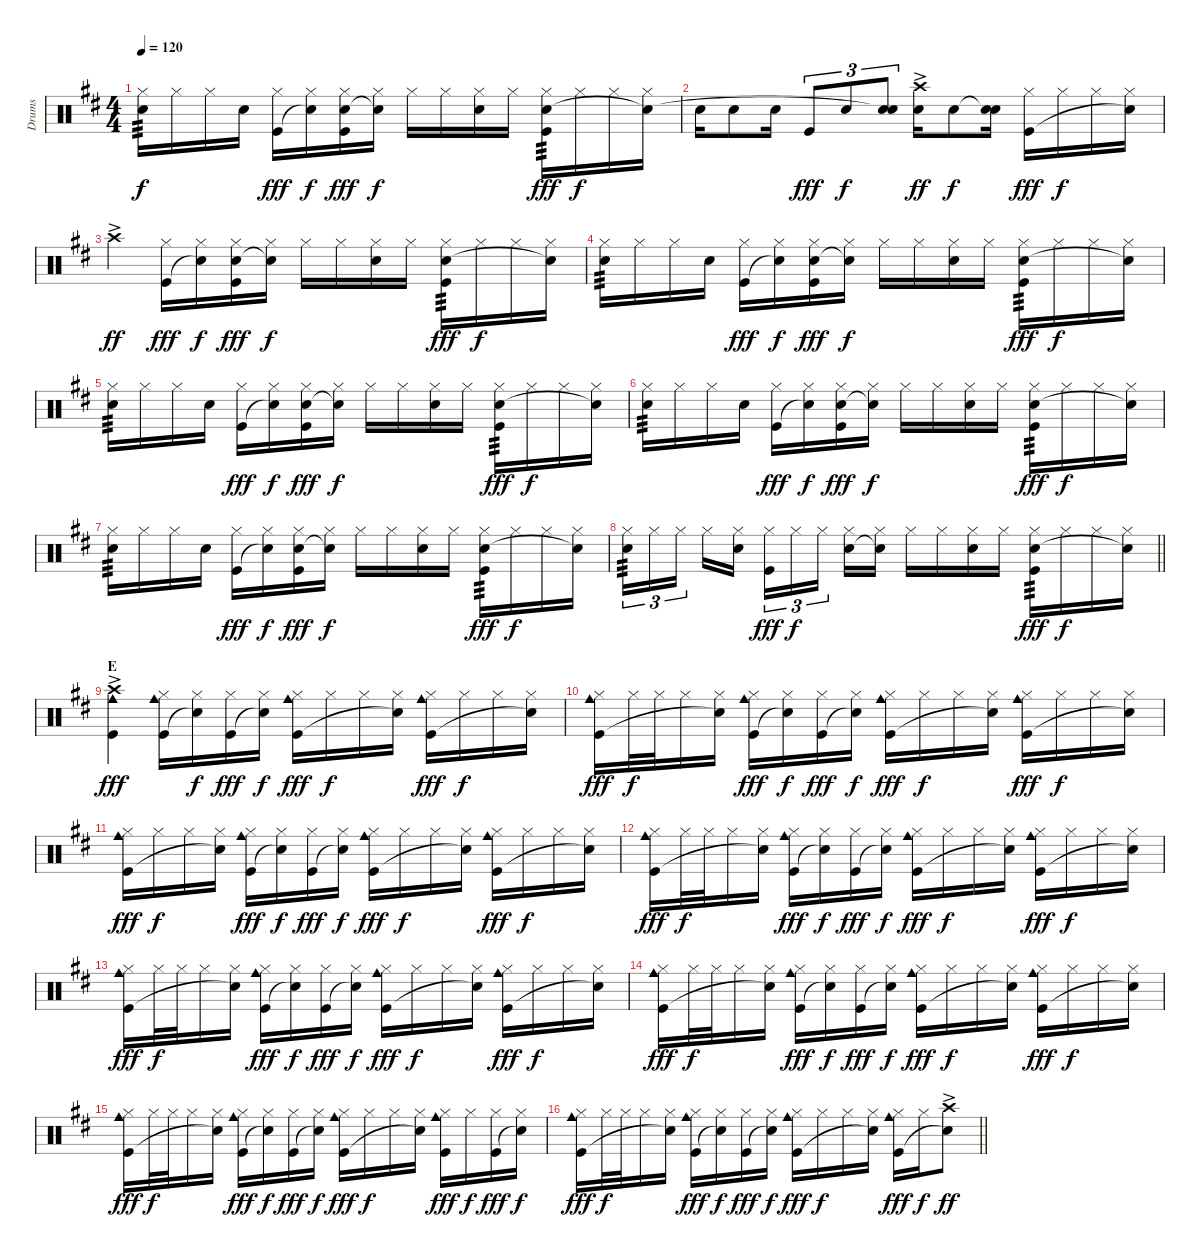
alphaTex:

\track ("Drums" "Drums") {instrument percussion}
\staff {score}
\articulation defaults
\ts (4 4)
\tempo 120
\clef neutral
\ks d
("Hi-Hat (closed)" "Snare (hit) 2").16{tp 3 dy f} "Hi-Hat (closed)".16 "Hi-Hat (closed)".16 "Snare (hit) 2".16 ("Hi-Hat (closed)" "Kick (hit)").16{dy fff} ("Hi-Hat (closed)" "Snare (hit)"{t}).16{dy f} ("Hi-Hat (closed)" "Snare (hit) 2" "Kick (hit)").16{dy fff} ("Hi-Hat (closed)" "Snare (hit)"{t}).16{dy f} "Hi-Hat (closed)".16 "Hi-Hat (closed)".16 ("Hi-Hat (closed)" "Snare (hit) 2").16 "Hi-Hat (closed)".16 ("Hi-Hat (closed)" "Snare (hit) 2" "Kick (hit)").16{tp 3 dy fff} "Hi-Hat (closed)".16{dy f} "Hi-Hat (closed)".16 ("Hi-Hat (closed)" "Snare (hit)"{t}).16 |
"Snare (hit) 2".16 "Snare (hit) 2".8 "Snare (hit) 2".16 "Kick (hit)".8{tu (3 2) dy fff} "Snare (hit) 2".8{tu (3 2) dy f} ("Snare (hit) 2" "Snare (hit)"{t}).8{tu (3 2)} ("Crash high (hit)"{ac} "Snare (hit) 2").16{dy ff} "Snare (hit) 2".8{dy f} ("Snare (hit)"{t} "Snare (hit) 2").16 ("Hi-Hat (closed)" "Kick (hit)").16{dy fff} "Hi-Hat (closed)".16{dy f} "Hi-Hat (closed)".16 ("Hi-Hat (closed)" "Snare (hit)"{t}).16 |
"Crash high (hit)"{ac}.4{dy ff} ("Hi-Hat (closed)" "Kick (hit)").16{dy fff} ("Hi-Hat (closed)" "Snare (hit)"{t}).16{dy f} ("Hi-Hat (closed)" "Snare (hit) 2" "Kick (hit)").16{dy fff} ("Hi-Hat (closed)" "Snare (hit)"{t}).16{dy f} "Hi-Hat (closed)".16 "Hi-Hat (closed)".16 ("Hi-Hat (closed)" "Snare (hit) 2").16 "Hi-Hat (closed)".16 ("Hi-Hat (closed)" "Snare (hit) 2" "Kick (hit)").16{tp 3 dy fff} "Hi-Hat (closed)".16{dy f} "Hi-Hat (closed)".16 ("Hi-Hat (closed)" "Snare (hit)"{t}).16 |
("Hi-Hat (closed)" "Snare (hit) 2").16{tp 3} "Hi-Hat (closed)".16 "Hi-Hat (closed)".16 "Snare (hit) 2".16 ("Hi-Hat (closed)" "Kick (hit)").16{dy fff} ("Hi-Hat (closed)" "Snare (hit)"{t}).16{dy f} ("Hi-Hat (closed)" "Snare (hit) 2" "Kick (hit)").16{dy fff} ("Hi-Hat (closed)" "Snare (hit)"{t}).16{dy f} "Hi-Hat (closed)".16 "Hi-Hat (closed)".16 ("Hi-Hat (closed)" "Snare (hit) 2").16 "Hi-Hat (closed)".16 ("Hi-Hat (closed)" "Snare (hit) 2" "Kick (hit)").16{tp 3 dy fff} "Hi-Hat (closed)".16{dy f} "Hi-Hat (closed)".16 ("Hi-Hat (closed)" "Snare (hit)"{t}).16 |
("Hi-Hat (closed)" "Snare (hit) 2").16{tp 3} "Hi-Hat (closed)".16 "Hi-Hat (closed)".16 "Snare (hit) 2".16 ("Hi-Hat (closed)" "Kick (hit)").16{dy fff} ("Hi-Hat (closed)" "Snare (hit)"{t}).16{dy f} ("Hi-Hat (closed)" "Snare (hit) 2" "Kick (hit)").16{dy fff} ("Hi-Hat (closed)" "Snare (hit)"{t}).16{dy f} "Hi-Hat (closed)".16 "Hi-Hat (closed)".16 ("Hi-Hat (closed)" "Snare (hit) 2").16 "Hi-Hat (closed)".16 ("Hi-Hat (closed)" "Snare (hit) 2" "Kick (hit)").16{tp 3 dy fff} "Hi-Hat (closed)".16{dy f} "Hi-Hat (closed)".16 ("Hi-Hat (closed)" "Snare (hit)"{t}).16 |
("Hi-Hat (closed)" "Snare (hit) 2").16{tp 3} "Hi-Hat (closed)".16 "Hi-Hat (closed)".16 "Snare (hit) 2".16 ("Hi-Hat (closed)" "Kick (hit)").16{dy fff} ("Hi-Hat (closed)" "Snare (hit)"{t}).16{dy f} ("Hi-Hat (closed)" "Snare (hit) 2" "Kick (hit)").16{dy fff} ("Hi-Hat (closed)" "Snare (hit)"{t}).16{dy f} "Hi-Hat (closed)".16 "Hi-Hat (closed)".16 ("Hi-Hat (closed)" "Snare (hit) 2").16 "Hi-Hat (closed)".16 ("Hi-Hat (closed)" "Snare (hit) 2" "Kick (hit)").16{tp 3 dy fff} "Hi-Hat (closed)".16{dy f} "Hi-Hat (closed)".16 ("Hi-Hat (closed)" "Snare (hit)"{t}).16 |
("Hi-Hat (closed)" "Snare (hit) 2").16{tp 3} "Hi-Hat (closed)".16 "Hi-Hat (closed)".16 "Snare (hit) 2".16 ("Hi-Hat (closed)" "Kick (hit)").16{dy fff} ("Hi-Hat (closed)" "Snare (hit)"{t}).16{dy f} ("Hi-Hat (closed)" "Snare (hit) 2" "Kick (hit)").16{dy fff} ("Hi-Hat (closed)" "Snare (hit)"{t}).16{dy f} "Hi-Hat (closed)".16 "Hi-Hat (closed)".16 ("Hi-Hat (closed)" "Snare (hit) 2").16 "Hi-Hat (closed)".16 ("Hi-Hat (closed)" "Snare (hit) 2" "Kick (hit)").16{tp 3 dy fff} "Hi-Hat (closed)".16{dy f} "Hi-Hat (closed)".16 ("Hi-Hat (closed)" "Snare (hit)"{t}).16 |
\barLineRight lightlight
("Hi-Hat (closed)" "Snare (hit) 2").16{tu (3 2) tp 3} "Hi-Hat (closed)".16{tu (3 2)} "Hi-Hat (closed)".16{tu (3 2) beam splitsecondary} "Hi-Hat (closed)".16 ("Hi-Hat (closed)" "Snare (hit) 2").16 ("Hi-Hat (closed)" "Kick (hit)").16{tu (3 2) dy fff} "Hi-Hat (closed)".16{tu (3 2) dy f} "Hi-Hat (closed)".16{tu (3 2) beam splitsecondary} ("Hi-Hat (closed)" "Snare (hit) 2").16 ("Hi-Hat (closed)" "Snare (hit)"{t}).16 "Hi-Hat (closed)".16 "Hi-Hat (closed)".16 ("Hi-Hat (closed)" "Snare (hit) 2").16 "Hi-Hat (closed)".16 ("Hi-Hat (closed)" "Snare (hit) 2" "Kick (hit)").16{tp 3 dy fff} "Hi-Hat (closed)".16{dy f} "Hi-Hat (closed)".16 ("Hi-Hat (closed)" "Snare (hit)"{t}).16 |
\section ("" "E")
("Crash high (hit)"{ac} "Kick (hit)" "Cowbell medium (hit)").4{dy fff} ("Hi-Hat (closed)" "Kick (hit)" "Cowbell medium (hit)").16 ("Hi-Hat (closed)" "Snare (hit)"{t}).16{dy f} ("Hi-Hat (closed)" "Kick (hit)").16{dy fff} ("Hi-Hat (closed)" "Snare (hit)"{t}).16{dy f} ("Hi-Hat (closed)" "Kick (hit)" "Cowbell medium (hit)").16{dy fff} "Hi-Hat (closed)".16{dy f} "Hi-Hat (closed)".16 ("Hi-Hat (closed)" "Snare (hit)"{t}).16 ("Hi-Hat (closed)" "Kick (hit)" "Cowbell medium (hit)").16{dy fff} "Hi-Hat (closed)".16{dy f} "Hi-Hat (closed)".16 ("Hi-Hat (closed)" "Snare (hit)"{t}).16 |
("Hi-Hat (closed)" "Kick (hit)" "Cowbell medium (hit)").16{dy fff} "Hi-Hat (closed)".32{dy f} "Hi-Hat (closed)".32 "Hi-Hat (closed)".16 ("Hi-Hat (closed)" "Snare (hit)"{t}).16 ("Hi-Hat (closed)" "Kick (hit)" "Cowbell medium (hit)").16{dy fff} ("Hi-Hat (closed)" "Snare (hit)"{t}).16{dy f} ("Hi-Hat (closed)" "Kick (hit)").16{dy fff} ("Hi-Hat (closed)" "Snare (hit)"{t}).16{dy f} ("Hi-Hat (closed)" "Kick (hit)" "Cowbell medium (hit)").16{dy fff} "Hi-Hat (closed)".16{dy f} "Hi-Hat (closed)".16 ("Hi-Hat (closed)" "Snare (hit)"{t}).16 ("Hi-Hat (closed)" "Kick (hit)" "Cowbell medium (hit)").16{dy fff} "Hi-Hat (closed)".16{dy f} "Hi-Hat (closed)".16 ("Hi-Hat (closed)" "Snare (hit)"{t}).16 |
("Hi-Hat (closed)" "Kick (hit)" "Cowbell medium (hit)").16{dy fff} "Hi-Hat (closed)".16{dy f} "Hi-Hat (closed)".16 ("Hi-Hat (closed)" "Snare (hit)"{t}).16 ("Hi-Hat (closed)" "Kick (hit)" "Cowbell medium (hit)").16{dy fff} ("Hi-Hat (closed)" "Snare (hit)"{t}).16{dy f} ("Hi-Hat (closed)" "Kick (hit)").16{dy fff} ("Hi-Hat (closed)" "Snare (hit)"{t}).16{dy f} ("Hi-Hat (closed)" "Kick (hit)" "Cowbell medium (hit)").16{dy fff} "Hi-Hat (closed)".16{dy f} "Hi-Hat (closed)".16 ("Hi-Hat (closed)" "Snare (hit)"{t}).16 ("Hi-Hat (closed)" "Kick (hit)" "Cowbell medium (hit)").16{dy fff} "Hi-Hat (closed)".16{dy f} "Hi-Hat (closed)".16 ("Hi-Hat (closed)" "Snare (hit)"{t}).16 |
("Hi-Hat (closed)" "Kick (hit)" "Cowbell medium (hit)").16{dy fff} "Hi-Hat (closed)".32{dy f} "Hi-Hat (closed)".32 "Hi-Hat (closed)".16 ("Hi-Hat (closed)" "Snare (hit)"{t}).16 ("Hi-Hat (closed)" "Kick (hit)" "Cowbell medium (hit)").16{dy fff} ("Hi-Hat (closed)" "Snare (hit)"{t}).16{dy f} ("Hi-Hat (closed)" "Kick (hit)").16{dy fff} ("Hi-Hat (closed)" "Snare (hit)"{t}).16{dy f} ("Hi-Hat (closed)" "Kick (hit)" "Cowbell medium (hit)").16{dy fff} "Hi-Hat (closed)".16{dy f} "Hi-Hat (closed)".16 ("Hi-Hat (closed)" "Snare (hit)"{t}).16 ("Hi-Hat (closed)" "Kick (hit)" "Cowbell medium (hit)").16{dy fff} "Hi-Hat (closed)".16{dy f} "Hi-Hat (closed)".16 ("Hi-Hat (closed)" "Snare (hit)"{t}).16 |
("Hi-Hat (closed)" "Kick (hit)" "Cowbell medium (hit)").16{dy fff} "Hi-Hat (closed)".32{dy f} "Hi-Hat (closed)".32 "Hi-Hat (closed)".16 ("Hi-Hat (closed)" "Snare (hit)"{t}).16 ("Hi-Hat (closed)" "Kick (hit)" "Cowbell medium (hit)").16{dy fff} ("Hi-Hat (closed)" "Snare (hit)"{t}).16{dy f} ("Hi-Hat (closed)" "Kick (hit)").16{dy fff} ("Hi-Hat (closed)" "Snare (hit)"{t}).16{dy f} ("Hi-Hat (closed)" "Kick (hit)" "Cowbell medium (hit)").16{dy fff} "Hi-Hat (closed)".16{dy f} "Hi-Hat (closed)".16 ("Hi-Hat (closed)" "Snare (hit)"{t}).16 ("Hi-Hat (closed)" "Kick (hit)" "Cowbell medium (hit)").16{dy fff} "Hi-Hat (closed)".16{dy f} "Hi-Hat (closed)".16 ("Hi-Hat (closed)" "Snare (hit)"{t}).16 |
("Hi-Hat (closed)" "Kick (hit)" "Cowbell medium (hit)").16{dy fff} "Hi-Hat (closed)".32{dy f} "Hi-Hat (closed)".32 "Hi-Hat (closed)".16 ("Hi-Hat (closed)" "Snare (hit)"{t}).16 ("Hi-Hat (closed)" "Kick (hit)" "Cowbell medium (hit)").16{dy fff} ("Hi-Hat (closed)" "Snare (hit)"{t}).16{dy f} ("Hi-Hat (closed)" "Kick (hit)").16{dy fff} ("Hi-Hat (closed)" "Snare (hit)"{t}).16{dy f} ("Hi-Hat (closed)" "Kick (hit)" "Cowbell medium (hit)").16{dy fff} "Hi-Hat (closed)".16{dy f} "Hi-Hat (closed)".16 ("Hi-Hat (closed)" "Snare (hit)"{t}).16 ("Hi-Hat (closed)" "Kick (hit)" "Cowbell medium (hit)").16{dy fff} "Hi-Hat (closed)".16{dy f} "Hi-Hat (closed)".16 ("Hi-Hat (closed)" "Snare (hit)"{t}).16 |
("Hi-Hat (closed)" "Kick (hit)" "Cowbell medium (hit)").16{dy fff} "Hi-Hat (closed)".32{dy f} "Hi-Hat (closed)".32 "Hi-Hat (closed)".16 ("Hi-Hat (closed)" "Snare (hit)"{t}).16 ("Hi-Hat (closed)" "Kick (hit)" "Cowbell medium (hit)").16{dy fff} ("Hi-Hat (closed)" "Snare (hit)"{t}).16{dy f} ("Hi-Hat (closed)" "Kick (hit)").16{dy fff} ("Hi-Hat (closed)" "Snare (hit)"{t}).16{dy f} ("Hi-Hat (closed)" "Kick (hit)" "Cowbell medium (hit)").16{dy fff} "Hi-Hat (closed)".16{dy f} "Hi-Hat (closed)".16 ("Hi-Hat (closed)" "Snare (hit)"{t}).16 ("Hi-Hat (closed)" "Kick (hit)" "Cowbell medium (hit)").16{dy fff} "Hi-Hat (closed)".16{dy f} ("Hi-Hat (closed)" "Kick (hit)").16{dy fff} ("Hi-Hat (closed)" "Snare (hit)"{t}).16{dy f} |
\barLineRight lightlight
("Hi-Hat (closed)" "Kick (hit)" "Cowbell medium (hit)").16{dy fff} "Hi-Hat (closed)".32{dy f} "Hi-Hat (closed)".32 "Hi-Hat (closed)".16 ("Hi-Hat (closed)" "Snare (hit)"{t}).16 ("Hi-Hat (closed)" "Kick (hit)" "Cowbell medium (hit)").16{dy fff} ("Hi-Hat (closed)" "Snare (hit)"{t}).16{dy f} ("Hi-Hat (closed)" "Kick (hit)").16{dy fff} ("Hi-Hat (closed)" "Snare (hit)"{t}).16{dy f} ("Hi-Hat (closed)" "Kick (hit)" "Cowbell medium (hit)").16{dy fff} "Hi-Hat (closed)".16{dy f} "Hi-Hat (closed)".16 ("Hi-Hat (closed)" "Snare (hit)"{t}).16 ("Hi-Hat (closed)" "Kick (hit)" "Cowbell medium (hit)").16{dy fff} "Hi-Hat (closed)".16{dy f} ("Crash high (hit)"{ac} "Snare (hit)"{t}).8{dy ff}
